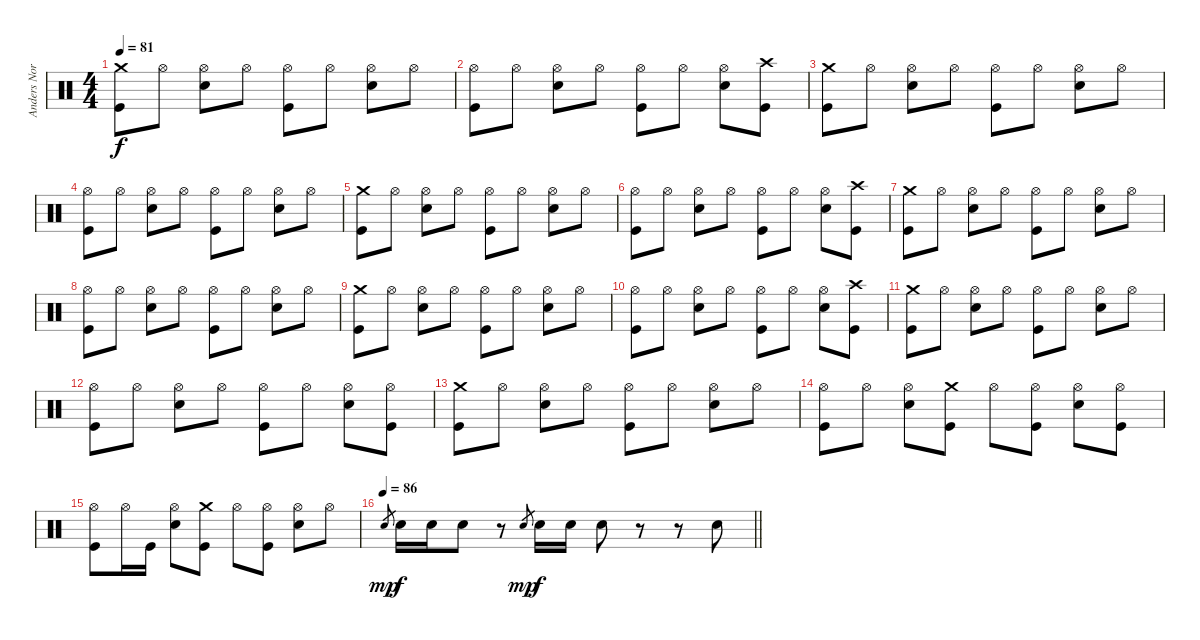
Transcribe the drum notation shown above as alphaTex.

\track ("Anders Nordin - Drums" "Anders Nor") {instrument percussion}
\staff {score}
\articulation defaults
\ts (4 4)
\tempo 81
\clef neutral
\ks c
("Crash medium (hit)" "Kick (hit)").8{dy f} "Hi-Hat (open)".8 ("Hi-Hat (open)" "Snare (hit) 2").8 "Hi-Hat (open)".8 ("Hi-Hat (open)" "Kick (hit)").8 "Hi-Hat (open)".8 ("Hi-Hat (open)" "Snare (hit) 2").8 "Hi-Hat (open)".8 |
("Hi-Hat (open)" "Kick (hit)").8 "Hi-Hat (open)".8 ("Hi-Hat (open)" "Snare (hit) 2").8 "Hi-Hat (open)".8 ("Hi-Hat (open)" "Kick (hit)").8 "Hi-Hat (open)".8 ("Hi-Hat (open)" "Snare (hit) 2").8 ("Kick (hit)" "Crash high (hit)").8 |
("Crash medium (hit)" "Kick (hit)").8 "Hi-Hat (open)".8 ("Hi-Hat (open)" "Snare (hit) 2").8 "Hi-Hat (open)".8 ("Hi-Hat (open)" "Kick (hit)").8 "Hi-Hat (open)".8 ("Hi-Hat (open)" "Snare (hit) 2").8 "Hi-Hat (open)".8 |
("Hi-Hat (open)" "Kick (hit)").8 "Hi-Hat (open)".8 ("Hi-Hat (open)" "Snare (hit) 2").8 "Hi-Hat (open)".8 ("Hi-Hat (open)" "Kick (hit)").8 "Hi-Hat (open)".8 ("Hi-Hat (open)" "Snare (hit) 2").8 "Hi-Hat (open)".8 |
("Crash medium (hit)" "Kick (hit)").8 "Hi-Hat (open)".8 ("Hi-Hat (open)" "Snare (hit) 2").8 "Hi-Hat (open)".8 ("Hi-Hat (open)" "Kick (hit)").8 "Hi-Hat (open)".8 ("Hi-Hat (open)" "Snare (hit) 2").8 "Hi-Hat (open)".8 |
("Hi-Hat (open)" "Kick (hit)").8 "Hi-Hat (open)".8 ("Hi-Hat (open)" "Snare (hit) 2").8 "Hi-Hat (open)".8 ("Hi-Hat (open)" "Kick (hit)").8 "Hi-Hat (open)".8 ("Hi-Hat (open)" "Snare (hit) 2").8 ("Kick (hit)" "Crash high (hit)").8 |
("Crash medium (hit)" "Kick (hit)").8 "Hi-Hat (open)".8 ("Hi-Hat (open)" "Snare (hit) 2").8 "Hi-Hat (open)".8 ("Hi-Hat (open)" "Kick (hit)").8 "Hi-Hat (open)".8 ("Hi-Hat (open)" "Snare (hit) 2").8 "Hi-Hat (open)".8 |
("Hi-Hat (open)" "Kick (hit)").8 "Hi-Hat (open)".8 ("Hi-Hat (open)" "Snare (hit) 2").8 "Hi-Hat (open)".8 ("Hi-Hat (open)" "Kick (hit)").8 "Hi-Hat (open)".8 ("Hi-Hat (open)" "Snare (hit) 2").8 "Hi-Hat (open)".8 |
("Crash medium (hit)" "Kick (hit)").8 "Hi-Hat (open)".8 ("Hi-Hat (open)" "Snare (hit) 2").8 "Hi-Hat (open)".8 ("Hi-Hat (open)" "Kick (hit)").8 "Hi-Hat (open)".8 ("Hi-Hat (open)" "Snare (hit) 2").8 "Hi-Hat (open)".8 |
("Hi-Hat (open)" "Kick (hit)").8 "Hi-Hat (open)".8 ("Hi-Hat (open)" "Snare (hit) 2").8 "Hi-Hat (open)".8 ("Hi-Hat (open)" "Kick (hit)").8 "Hi-Hat (open)".8 ("Hi-Hat (open)" "Snare (hit) 2").8 ("Kick (hit)" "Crash high (hit)").8 |
("Crash medium (hit)" "Kick (hit)").8 "Hi-Hat (open)".8 ("Hi-Hat (open)" "Snare (hit) 2").8 "Hi-Hat (open)".8 ("Hi-Hat (open)" "Kick (hit)").8 "Hi-Hat (open)".8 ("Hi-Hat (open)" "Snare (hit) 2").8 "Hi-Hat (open)".8 |
("Hi-Hat (open)" "Kick (hit)").8 "Hi-Hat (open)".8 ("Hi-Hat (open)" "Snare (hit) 2").8 "Hi-Hat (open)".8 ("Hi-Hat (open)" "Kick (hit)").8 "Hi-Hat (open)".8 ("Hi-Hat (open)" "Snare (hit) 2").8 ("Hi-Hat (open)" "Kick (hit)").8 |
("Crash medium (hit)" "Kick (hit)").8 "Hi-Hat (open)".8 ("Hi-Hat (open)" "Snare (hit) 2").8 "Hi-Hat (open)".8 ("Hi-Hat (open)" "Kick (hit)").8 "Hi-Hat (open)".8 ("Hi-Hat (open)" "Snare (hit) 2").8 "Hi-Hat (open)".8 |
("Hi-Hat (open)" "Kick (hit)").8 "Hi-Hat (open)".8 ("Hi-Hat (open)" "Snare (hit) 2").8 ("Kick (hit)" "Crash medium (hit)").8 "Hi-Hat (open)".8 ("Hi-Hat (open)" "Kick (hit)").8 ("Hi-Hat (open)" "Snare (hit) 2").8 ("Hi-Hat (open)" "Kick (hit)").8 |
("Hi-Hat (open)" "Kick (hit)").8 "Hi-Hat (open)".16 "Kick (hit)".16 ("Snare (hit) 2" "Hi-Hat (open)").8 ("Kick (hit)" "Crash medium (hit)").8 "Hi-Hat (open)".8 ("Kick (hit)" "Hi-Hat (open)").8 ("Snare (hit) 2" "Hi-Hat (open)").8 "Hi-Hat (open)".8 |
\tempo 86
\barLineRight lightlight "Snare (hit) 2".8{gr dy mp} "Snare (hit) 2".16{dy f} "Snare (hit) 2".16 "Snare (hit) 2".8
r.8 "Snare (hit) 2".8{gr dy mp} "Snare (hit) 2".16{dy f} "Snare (hit) 2".16 "Snare (hit) 2".8 r.8 r.8 "Snare (hit) 2".8
